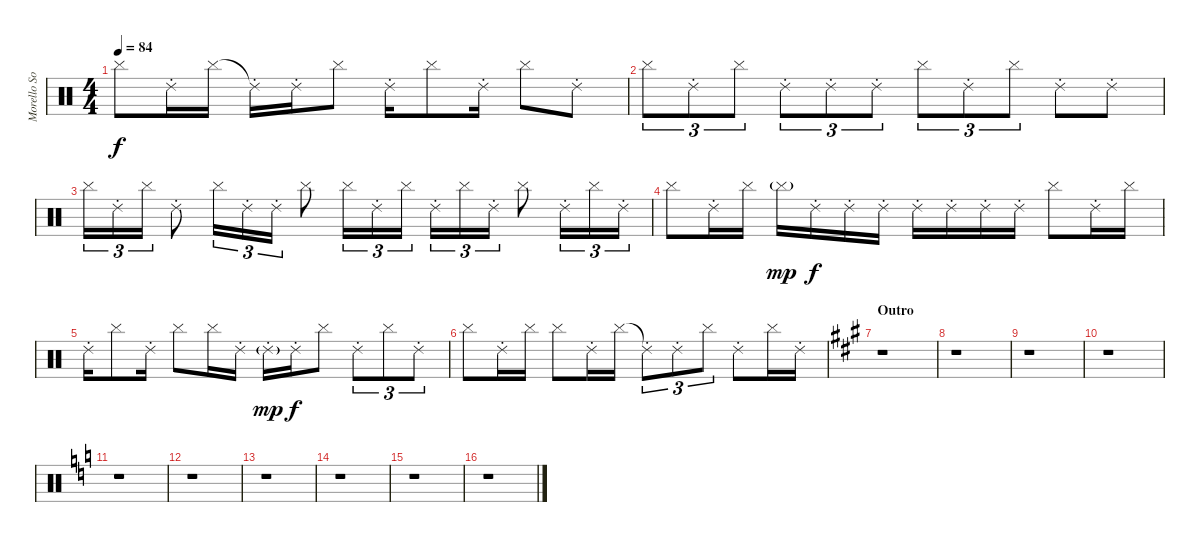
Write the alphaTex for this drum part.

\track ("Morello Solo" "Morello So") {instrument percussion}
\staff {score}
\articulation defaults
\ts (4 4)
\tempo 84
\clef neutral
\ks c "Cymbal (hit)".8{dy f} "Ride (choke) 2".16 "Cymbal (hit)".16 "Ride (choke) 2"{t}.16 "Ride (choke) 2".16 "Cymbal (hit)".8 "Ride (choke) 2".16 "Cymbal (hit)".8 "Ride (choke) 2".16 "Cymbal (hit)".8 "Ride (choke) 2".8
|
"Cymbal (hit)".8{tu (3 2)} "Ride (choke) 2".8{tu (3 2)} "Cymbal (hit)".8{tu (3 2)} "Ride (choke) 2".8{tu (3 2)} "Ride (choke) 2".8{tu (3 2)} "Ride (choke) 2".8{tu (3 2)} "Cymbal (hit)".8{tu (3 2)} "Ride (choke) 2".8{tu (3 2)} "Cymbal (hit)".8{tu (3 2)} "Ride (choke) 2".8 "Ride (choke) 2".8 |
"Cymbal (hit)".16{tu (3 2)} "Ride (choke) 2".16{tu (3 2)} "Cymbal (hit)".16{tu (3 2)} "Ride (choke) 2".8 "Cymbal (hit)".16{tu (3 2)} "Ride (choke) 2".16{tu (3 2)} "Ride (choke) 2".16{tu (3 2)} "Cymbal (hit)".8 "Cymbal (hit)".16{tu (3 2)} "Ride (choke) 2".16{tu (3 2)} "Cymbal (hit)".16{tu (3 2)} "Ride (choke) 2".16{tu (3 2)} "Cymbal (hit)".16{tu (3 2)} "Ride (choke) 2".16{tu (3 2)} "Cymbal (hit)".8 "Ride (choke) 2".16{tu (3 2)} "Cymbal (hit)".16{tu (3 2)} "Ride (choke) 2".16{tu (3 2)} |
"Cymbal (hit)".8 "Ride (choke) 2".16 "Cymbal (hit)".16 "Cymbal (hit)"{g}.16{dy mp} "Ride (choke) 2".16{dy f} "Ride (choke) 2".16 "Ride (choke) 2".16 "Ride (choke) 2".16 "Ride (choke) 2".16 "Ride (choke) 2".16 "Ride (choke) 2".16 "Cymbal (hit)".8 "Ride (choke) 2".16 "Cymbal (hit)".16 |
"Ride (choke) 2".16 "Cymbal (hit)".8 "Ride (choke) 2".16 "Cymbal (hit)".8 "Cymbal (hit)".16 "Ride (choke) 2".16 "Ride (choke) 2"{g}.16{dy mp} "Ride (choke) 2".16{dy f} "Cymbal (hit)".8 "Ride (choke) 2".8{tu (3 2)} "Cymbal (hit)".8{tu (3 2)} "Ride (choke) 2".8{tu (3 2)} |
"Cymbal (hit)".8 "Ride (choke) 2".16 "Cymbal (hit)".16 "Cymbal (hit)".8 "Ride (choke) 2".16 "Cymbal (hit)".16 "Ride (choke) 2"{t}.8{tu (3 2)} "Ride (choke) 2".8{tu (3 2)} "Cymbal (hit)".8{tu (3 2)} "Ride (choke) 2".8 "Cymbal (hit)".16 "Ride (choke) 2".16 |
\section ("" "Outro")
\ks a
r.1 |
r.1 |
r.1 |
r.1 |
\ks c
r.1 |
r.1 |
r.1 |
r.1 |
r.1 |
r.1
